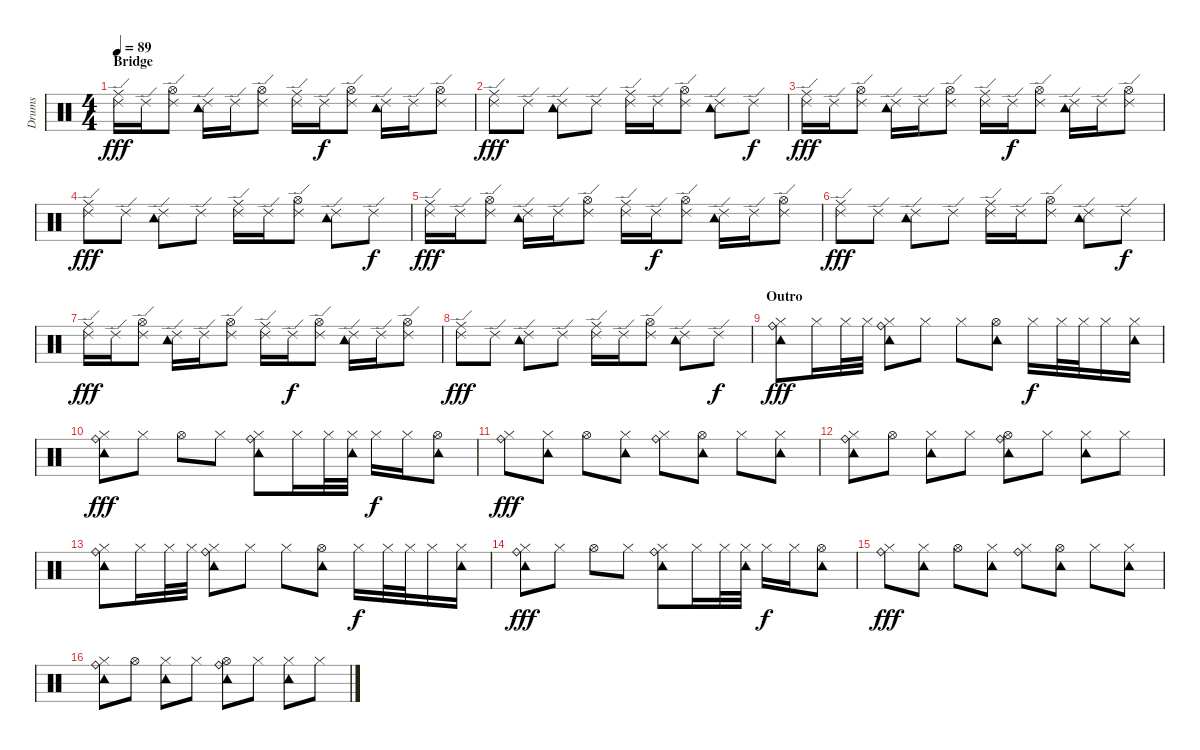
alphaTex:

\track ("Drums" "Drums") {instrument percussion}
\staff {score}
\articulation defaults
\ts (4 4)
\section ("" "Bridge")
\tempo 89
\clef neutral
\ks c
("Ride (edge) 2" "Ride (middle)").16{dy fff} "Ride (edge) 2".16 ("Ride (edge) 2" "Hi-Hat (open)").8 ("Ride (edge) 2" "Tambourine (hit)").16 "Ride (edge) 2".16 ("Ride (edge) 2" "Hi-Hat (open)").8 ("Ride (edge) 2" "Ride (middle)").16 "Ride (edge) 2".16{dy f} ("Ride (edge) 2" "Hi-Hat (open)").8 ("Ride (edge) 2" "Tambourine (hit)").16 "Ride (edge) 2".16 ("Ride (edge) 2" "Hi-Hat (open)").8 |
("Ride (edge) 2" "Ride (middle)").8{dy fff} "Ride (edge) 2".8 ("Ride (edge) 2" "Tambourine (hit)").8 "Ride (edge) 2".8 ("Ride (edge) 2" "Ride (middle)").16 "Ride (edge) 2".16 ("Ride (edge) 2" "Hi-Hat (open)").8 ("Ride (edge) 2" "Tambourine (hit)").8 "Ride (edge) 2".8{dy f} |
("Ride (edge) 2" "Ride (middle)").16{dy fff} "Ride (edge) 2".16 ("Ride (edge) 2" "Hi-Hat (open)").8 ("Ride (edge) 2" "Tambourine (hit)").16 "Ride (edge) 2".16 ("Ride (edge) 2" "Hi-Hat (open)").8 ("Ride (edge) 2" "Ride (middle)").16 "Ride (edge) 2".16{dy f} ("Ride (edge) 2" "Hi-Hat (open)").8 ("Ride (edge) 2" "Tambourine (hit)").16 "Ride (edge) 2".16 ("Ride (edge) 2" "Hi-Hat (open)").8 |
("Ride (edge) 2" "Ride (middle)").8{dy fff} "Ride (edge) 2".8 ("Ride (edge) 2" "Tambourine (hit)").8 "Ride (edge) 2".8 ("Ride (edge) 2" "Ride (middle)").16 "Ride (edge) 2".16 ("Ride (edge) 2" "Hi-Hat (open)").8 ("Ride (edge) 2" "Tambourine (hit)").8 "Ride (edge) 2".8{dy f} |
("Ride (edge) 2" "Ride (middle)").16{dy fff} "Ride (edge) 2".16 ("Ride (edge) 2" "Hi-Hat (open)").8 ("Ride (edge) 2" "Tambourine (hit)").16 "Ride (edge) 2".16 ("Ride (edge) 2" "Hi-Hat (open)").8 ("Ride (edge) 2" "Ride (middle)").16 "Ride (edge) 2".16{dy f} ("Ride (edge) 2" "Hi-Hat (open)").8 ("Ride (edge) 2" "Tambourine (hit)").16 "Ride (edge) 2".16 ("Ride (edge) 2" "Hi-Hat (open)").8 |
("Ride (edge) 2" "Ride (middle)").8{dy fff} "Ride (edge) 2".8 ("Ride (edge) 2" "Tambourine (hit)").8 "Ride (edge) 2".8 ("Ride (edge) 2" "Ride (middle)").16 "Ride (edge) 2".16 ("Ride (edge) 2" "Hi-Hat (open)").8 ("Ride (edge) 2" "Tambourine (hit)").8 "Ride (edge) 2".8{dy f} |
("Ride (edge) 2" "Ride (middle)").16{dy fff} "Ride (edge) 2".16 ("Ride (edge) 2" "Hi-Hat (open)").8 ("Ride (edge) 2" "Tambourine (hit)").16 "Ride (edge) 2".16 ("Ride (edge) 2" "Hi-Hat (open)").8 ("Ride (edge) 2" "Ride (middle)").16 "Ride (edge) 2".16{dy f} ("Ride (edge) 2" "Hi-Hat (open)").8 ("Ride (edge) 2" "Tambourine (hit)").16 "Ride (edge) 2".16 ("Ride (edge) 2" "Hi-Hat (open)").8 |
("Ride (edge) 2" "Ride (middle)").8{dy fff} "Ride (edge) 2".8 ("Ride (edge) 2" "Tambourine (hit)").8 "Ride (edge) 2".8 ("Ride (edge) 2" "Ride (middle)").16 "Ride (edge) 2".16 ("Ride (edge) 2" "Hi-Hat (open)").8 ("Ride (edge) 2" "Tambourine (hit)").8 "Ride (edge) 2".8{dy f} |
\section ("" "Outro")
("Hi-Hat (closed)" "Ride (bell)" "Tambourine (hit)").8{dy fff} "Hi-Hat (closed)".16 "Hi-Hat (closed)".32 "Hi-Hat (closed)".32 ("Hi-Hat (closed)" "Ride (bell)" "Tambourine (hit)").8 "Hi-Hat (closed)".8 "Hi-Hat (closed)".8 ("Hi-Hat (open)" "Tambourine (hit)").8 "Hi-Hat (closed)".16{dy f} "Hi-Hat (closed)".32 "Hi-Hat (closed)".32 "Hi-Hat (closed)".16 ("Hi-Hat (closed)" "Tambourine (hit)").16 |
("Hi-Hat (closed)" "Ride (bell)" "Tambourine (hit)").8{dy fff} "Hi-Hat (closed)".8 "Hi-Hat (open)".8 "Hi-Hat (closed)".8 ("Hi-Hat (closed)" "Ride (bell)" "Tambourine (hit)").8 "Hi-Hat (closed)".16 "Hi-Hat (closed)".32 ("Hi-Hat (closed)" "Tambourine (hit)").32 "Hi-Hat (closed)".16{dy f} "Hi-Hat (closed)".16 ("Hi-Hat (open)" "Tambourine (hit)").8 |
("Hi-Hat (closed)" "Ride (bell)").8{dy fff} ("Hi-Hat (closed)" "Tambourine (hit)").8 "Hi-Hat (open)".8 ("Hi-Hat (closed)" "Tambourine (hit)").8 ("Hi-Hat (closed)" "Ride (bell)").8 ("Hi-Hat (open)" "Tambourine (hit)").8 "Hi-Hat (closed)".8 ("Hi-Hat (closed)" "Tambourine (hit)").8 |
("Hi-Hat (closed)" "Ride (bell)" "Tambourine (hit)").8 "Hi-Hat (open)".8 ("Hi-Hat (closed)" "Tambourine (hit)").8 "Hi-Hat (closed)".8 ("Hi-Hat (open)" "Ride (bell)" "Tambourine (hit)").8 "Hi-Hat (closed)".8 ("Hi-Hat (closed)" "Tambourine (hit)").8 "Hi-Hat (closed)".8 |
("Hi-Hat (closed)" "Ride (bell)" "Tambourine (hit)").8 "Hi-Hat (closed)".16 "Hi-Hat (closed)".32 "Hi-Hat (closed)".32 ("Hi-Hat (closed)" "Ride (bell)" "Tambourine (hit)").8 "Hi-Hat (closed)".8 "Hi-Hat (closed)".8 ("Hi-Hat (open)" "Tambourine (hit)").8 "Hi-Hat (closed)".16{dy f} "Hi-Hat (closed)".32 "Hi-Hat (closed)".32 "Hi-Hat (closed)".16 ("Hi-Hat (closed)" "Tambourine (hit)").16 |
("Hi-Hat (closed)" "Ride (bell)" "Tambourine (hit)").8{dy fff} "Hi-Hat (closed)".8 "Hi-Hat (open)".8 "Hi-Hat (closed)".8 ("Hi-Hat (closed)" "Ride (bell)" "Tambourine (hit)").8 "Hi-Hat (closed)".16 "Hi-Hat (closed)".32 ("Hi-Hat (closed)" "Tambourine (hit)").32 "Hi-Hat (closed)".16{dy f} "Hi-Hat (closed)".16 ("Hi-Hat (open)" "Tambourine (hit)").8 |
("Hi-Hat (closed)" "Ride (bell)").8{dy fff} ("Hi-Hat (closed)" "Tambourine (hit)").8 "Hi-Hat (open)".8 ("Hi-Hat (closed)" "Tambourine (hit)").8 ("Hi-Hat (closed)" "Ride (bell)").8 ("Hi-Hat (open)" "Tambourine (hit)").8 "Hi-Hat (closed)".8 ("Hi-Hat (closed)" "Tambourine (hit)").8 |
("Hi-Hat (closed)" "Ride (bell)" "Tambourine (hit)").8 "Hi-Hat (open)".8 ("Hi-Hat (closed)" "Tambourine (hit)").8 "Hi-Hat (closed)".8 ("Hi-Hat (open)" "Ride (bell)" "Tambourine (hit)").8 "Hi-Hat (closed)".8 ("Hi-Hat (closed)" "Tambourine (hit)").8 "Hi-Hat (closed)".8
